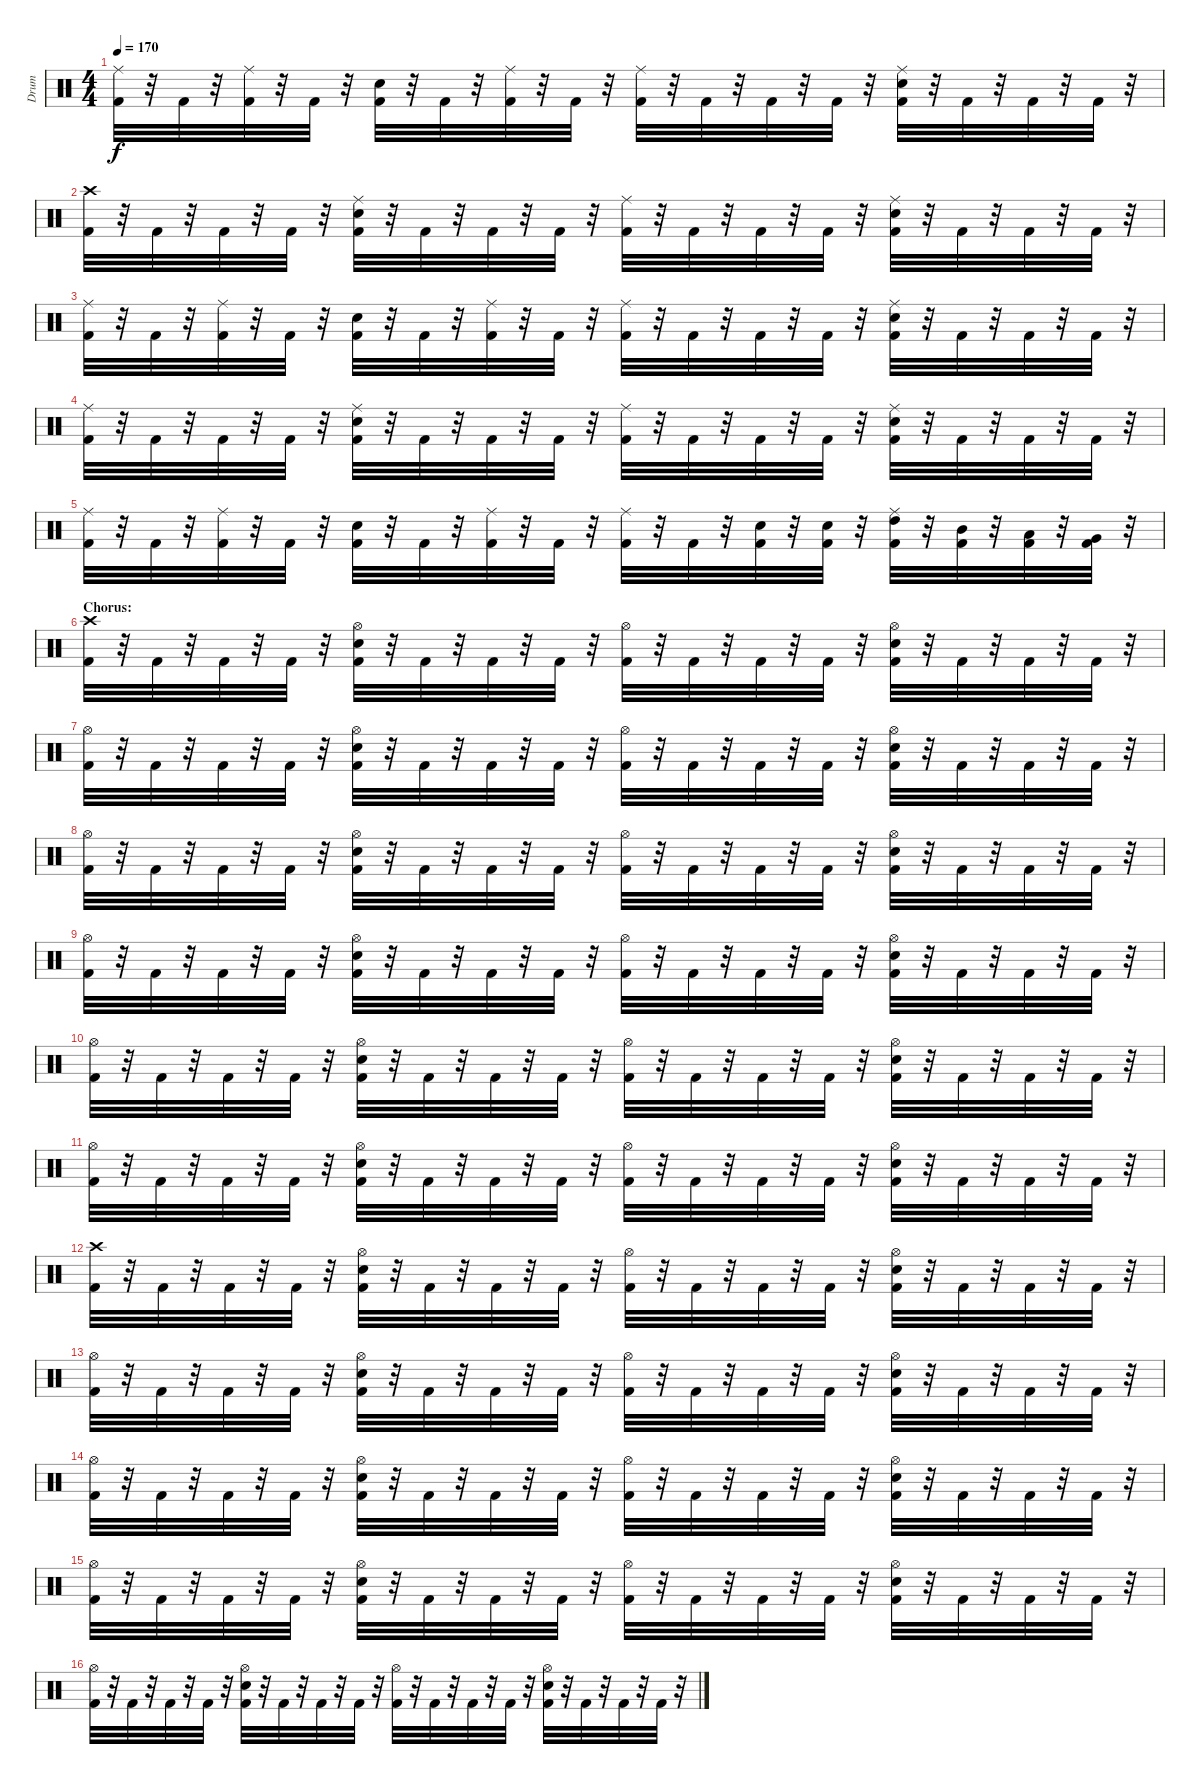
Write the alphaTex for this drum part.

\track ("Drum" "Drum") {instrument percussion}
\staff {score}
\articulation defaults
\ts (4 4)
\tempo 170
\clef neutral
\ks c
("Ride (middle)" "Kick (hit) 2").32{dy f} r.32 "Kick (hit) 2".32 r.32 ("Ride (middle)" "Kick (hit) 2").32 r.32 "Kick (hit) 2".32 r.32 ("Snare (hit) 2" "Kick (hit) 2").32 r.32 "Kick (hit) 2".32 r.32 ("Ride (middle)" "Kick (hit) 2").32 r.32 "Kick (hit) 2".32 r.32 ("Ride (middle)" "Kick (hit) 2").32 r.32 "Kick (hit) 2".32 r.32 "Kick (hit) 2".32 r.32 "Kick (hit) 2".32 r.32 ("Snare (hit) 2" "Ride (middle)" "Kick (hit) 2").32 r.32 "Kick (hit) 2".32 r.32 "Kick (hit) 2".32 r.32 "Kick (hit) 2".32 r.32 |
("Crash high (hit)" "Kick (hit) 2").32 r.32 "Kick (hit) 2".32 r.32 "Kick (hit) 2".32 r.32 "Kick (hit) 2".32 r.32 ("Snare (hit) 2" "Ride (middle)" "Kick (hit) 2").32 r.32 "Kick (hit) 2".32 r.32 "Kick (hit) 2".32 r.32 "Kick (hit) 2".32 r.32 ("Ride (middle)" "Kick (hit) 2").32 r.32 "Kick (hit) 2".32 r.32 "Kick (hit) 2".32 r.32 "Kick (hit) 2".32 r.32 ("Snare (hit) 2" "Ride (middle)" "Kick (hit) 2").32 r.32 "Kick (hit) 2".32 r.32 "Kick (hit) 2".32 r.32 "Kick (hit) 2".32 r.32 |
("Ride (middle)" "Kick (hit) 2").32 r.32 "Kick (hit) 2".32 r.32 ("Ride (middle)" "Kick (hit) 2").32 r.32 "Kick (hit) 2".32 r.32 ("Snare (hit) 2" "Kick (hit) 2").32 r.32 "Kick (hit) 2".32 r.32 ("Ride (middle)" "Kick (hit) 2").32 r.32 "Kick (hit) 2".32 r.32 ("Ride (middle)" "Kick (hit) 2").32 r.32 "Kick (hit) 2".32 r.32 "Kick (hit) 2".32 r.32 "Kick (hit) 2".32 r.32 ("Snare (hit) 2" "Ride (middle)" "Kick (hit) 2").32 r.32 "Kick (hit) 2".32 r.32 "Kick (hit) 2".32 r.32 "Kick (hit) 2".32 r.32 |
("Ride (middle)" "Kick (hit) 2").32 r.32 "Kick (hit) 2".32 r.32 "Kick (hit) 2".32 r.32 "Kick (hit) 2".32 r.32 ("Snare (hit) 2" "Ride (middle)" "Kick (hit) 2").32 r.32 "Kick (hit) 2".32 r.32 "Kick (hit) 2".32 r.32 "Kick (hit) 2".32 r.32 ("Ride (middle)" "Kick (hit) 2").32 r.32 "Kick (hit) 2".32 r.32 "Kick (hit) 2".32 r.32 "Kick (hit) 2".32 r.32 ("Snare (hit) 2" "Ride (middle)" "Kick (hit) 2").32 r.32 "Kick (hit) 2".32 r.32 "Kick (hit) 2".32 r.32 "Kick (hit) 2".32 r.32 |
("Ride (middle)" "Kick (hit) 2").32 r.32 "Kick (hit) 2".32 r.32 ("Ride (middle)" "Kick (hit) 2").32 r.32 "Kick (hit) 2".32 r.32 ("Snare (hit) 2" "Kick (hit) 2").32 r.32 "Kick (hit) 2".32 r.32 ("Ride (middle)" "Kick (hit) 2").32 r.32 "Kick (hit) 2".32 r.32 ("Ride (middle)" "Kick (hit) 2").32 r.32 "Kick (hit) 2".32 r.32 ("Snare (hit) 2" "Kick (hit) 2").32 r.32 ("Snare (hit) 2" "Kick (hit) 2").32 r.32 ("High Tom (hit)" "Ride (middle)" "Kick (hit) 2").32 r.32 ("Mid Tom (hit)" "Kick (hit) 2").32 r.32 ("Low Tom (hit)" "Kick (hit) 2").32 r.32 ("Very Low Tom (hit)" "Kick (hit) 2").32 r.32 |
\section ("" "Chorus:")
("Crash high (hit)" "Kick (hit) 2").32 r.32 "Kick (hit) 2".32 r.32 "Kick (hit) 2".32 r.32 "Kick (hit) 2".32 r.32 ("Hi-Hat (open)" "Snare (hit) 2" "Kick (hit) 2").32 r.32 "Kick (hit) 2".32 r.32 "Kick (hit) 2".32 r.32 "Kick (hit) 2".32 r.32 ("Hi-Hat (open)" "Kick (hit) 2").32 r.32 "Kick (hit) 2".32 r.32 "Kick (hit) 2".32 r.32 "Kick (hit) 2".32 r.32 ("Hi-Hat (open)" "Snare (hit) 2" "Kick (hit) 2").32 r.32 "Kick (hit) 2".32 r.32 "Kick (hit) 2".32 r.32 "Kick (hit) 2".32 r.32 |
("Hi-Hat (open)" "Kick (hit) 2").32 r.32 "Kick (hit) 2".32 r.32 "Kick (hit) 2".32 r.32 "Kick (hit) 2".32 r.32 ("Snare (hit) 2" "Hi-Hat (open)" "Kick (hit) 2").32 r.32 "Kick (hit) 2".32 r.32 "Kick (hit) 2".32 r.32 "Kick (hit) 2".32 r.32 ("Hi-Hat (open)" "Kick (hit) 2").32 r.32 "Kick (hit) 2".32 r.32 "Kick (hit) 2".32 r.32 "Kick (hit) 2".32 r.32 ("Snare (hit) 2" "Hi-Hat (open)" "Kick (hit) 2").32 r.32 "Kick (hit) 2".32 r.32 "Kick (hit) 2".32 r.32 "Kick (hit) 2".32 r.32 |
("Hi-Hat (open)" "Kick (hit) 2").32 r.32 "Kick (hit) 2".32 r.32 "Kick (hit) 2".32 r.32 "Kick (hit) 2".32 r.32 ("Snare (hit) 2" "Hi-Hat (open)" "Kick (hit) 2").32 r.32 "Kick (hit) 2".32 r.32 "Kick (hit) 2".32 r.32 "Kick (hit) 2".32 r.32 ("Hi-Hat (open)" "Kick (hit) 2").32 r.32 "Kick (hit) 2".32 r.32 "Kick (hit) 2".32 r.32 "Kick (hit) 2".32 r.32 ("Snare (hit) 2" "Hi-Hat (open)" "Kick (hit) 2").32 r.32 "Kick (hit) 2".32 r.32 "Kick (hit) 2".32 r.32 "Kick (hit) 2".32 r.32 |
("Hi-Hat (open)" "Kick (hit) 2").32 r.32 "Kick (hit) 2".32 r.32 "Kick (hit) 2".32 r.32 "Kick (hit) 2".32 r.32 ("Hi-Hat (open)" "Snare (hit) 2" "Kick (hit) 2").32 r.32 "Kick (hit) 2".32 r.32 "Kick (hit) 2".32 r.32 "Kick (hit) 2".32 r.32 ("Hi-Hat (open)" "Kick (hit) 2").32 r.32 "Kick (hit) 2".32 r.32 "Kick (hit) 2".32 r.32 "Kick (hit) 2".32 r.32 ("Hi-Hat (open)" "Snare (hit) 2" "Kick (hit) 2").32 r.32 "Kick (hit) 2".32 r.32 "Kick (hit) 2".32 r.32 "Kick (hit) 2".32 r.32 |
("Hi-Hat (open)" "Kick (hit) 2").32 r.32 "Kick (hit) 2".32 r.32 "Kick (hit) 2".32 r.32 "Kick (hit) 2".32 r.32 ("Snare (hit) 2" "Hi-Hat (open)" "Kick (hit) 2").32 r.32 "Kick (hit) 2".32 r.32 "Kick (hit) 2".32 r.32 "Kick (hit) 2".32 r.32 ("Hi-Hat (open)" "Kick (hit) 2").32 r.32 "Kick (hit) 2".32 r.32 "Kick (hit) 2".32 r.32 "Kick (hit) 2".32 r.32 ("Snare (hit) 2" "Hi-Hat (open)" "Kick (hit) 2").32 r.32 "Kick (hit) 2".32 r.32 "Kick (hit) 2".32 r.32 "Kick (hit) 2".32 r.32 |
("Hi-Hat (open)" "Kick (hit) 2").32 r.32 "Kick (hit) 2".32 r.32 "Kick (hit) 2".32 r.32 "Kick (hit) 2".32 r.32 ("Hi-Hat (open)" "Snare (hit) 2" "Kick (hit) 2").32 r.32 "Kick (hit) 2".32 r.32 "Kick (hit) 2".32 r.32 "Kick (hit) 2".32 r.32 ("Hi-Hat (open)" "Kick (hit) 2").32 r.32 "Kick (hit) 2".32 r.32 "Kick (hit) 2".32 r.32 "Kick (hit) 2".32 r.32 ("Hi-Hat (open)" "Snare (hit) 2" "Kick (hit) 2").32 r.32 "Kick (hit) 2".32 r.32 "Kick (hit) 2".32 r.32 "Kick (hit) 2".32 r.32 |
("Crash high (hit)" "Kick (hit) 2").32 r.32 "Kick (hit) 2".32 r.32 "Kick (hit) 2".32 r.32 "Kick (hit) 2".32 r.32 ("Hi-Hat (open)" "Snare (hit) 2" "Kick (hit) 2").32 r.32 "Kick (hit) 2".32 r.32 "Kick (hit) 2".32 r.32 "Kick (hit) 2".32 r.32 ("Hi-Hat (open)" "Kick (hit) 2").32 r.32 "Kick (hit) 2".32 r.32 "Kick (hit) 2".32 r.32 "Kick (hit) 2".32 r.32 ("Hi-Hat (open)" "Snare (hit) 2" "Kick (hit) 2").32 r.32 "Kick (hit) 2".32 r.32 "Kick (hit) 2".32 r.32 "Kick (hit) 2".32 r.32 |
("Hi-Hat (open)" "Kick (hit) 2").32 r.32 "Kick (hit) 2".32 r.32 "Kick (hit) 2".32 r.32 "Kick (hit) 2".32 r.32 ("Snare (hit) 2" "Hi-Hat (open)" "Kick (hit) 2").32 r.32 "Kick (hit) 2".32 r.32 "Kick (hit) 2".32 r.32 "Kick (hit) 2".32 r.32 ("Hi-Hat (open)" "Kick (hit) 2").32 r.32 "Kick (hit) 2".32 r.32 "Kick (hit) 2".32 r.32 "Kick (hit) 2".32 r.32 ("Snare (hit) 2" "Hi-Hat (open)" "Kick (hit) 2").32 r.32 "Kick (hit) 2".32 r.32 "Kick (hit) 2".32 r.32 "Kick (hit) 2".32 r.32 |
("Hi-Hat (open)" "Kick (hit) 2").32 r.32 "Kick (hit) 2".32 r.32 "Kick (hit) 2".32 r.32 "Kick (hit) 2".32 r.32 ("Snare (hit) 2" "Hi-Hat (open)" "Kick (hit) 2").32 r.32 "Kick (hit) 2".32 r.32 "Kick (hit) 2".32 r.32 "Kick (hit) 2".32 r.32 ("Hi-Hat (open)" "Kick (hit) 2").32 r.32 "Kick (hit) 2".32 r.32 "Kick (hit) 2".32 r.32 "Kick (hit) 2".32 r.32 ("Snare (hit) 2" "Hi-Hat (open)" "Kick (hit) 2").32 r.32 "Kick (hit) 2".32 r.32 "Kick (hit) 2".32 r.32 "Kick (hit) 2".32 r.32 |
("Hi-Hat (open)" "Kick (hit) 2").32 r.32 "Kick (hit) 2".32 r.32 "Kick (hit) 2".32 r.32 "Kick (hit) 2".32 r.32 ("Hi-Hat (open)" "Snare (hit) 2" "Kick (hit) 2").32 r.32 "Kick (hit) 2".32 r.32 "Kick (hit) 2".32 r.32 "Kick (hit) 2".32 r.32 ("Hi-Hat (open)" "Kick (hit) 2").32 r.32 "Kick (hit) 2".32 r.32 "Kick (hit) 2".32 r.32 "Kick (hit) 2".32 r.32 ("Hi-Hat (open)" "Snare (hit) 2" "Kick (hit) 2").32 r.32 "Kick (hit) 2".32 r.32 "Kick (hit) 2".32 r.32 "Kick (hit) 2".32 r.32 |
("Hi-Hat (open)" "Kick (hit) 2").32 r.32 "Kick (hit) 2".32 r.32 "Kick (hit) 2".32 r.32 "Kick (hit) 2".32 r.32 ("Hi-Hat (open)" "Snare (hit) 2" "Kick (hit) 2").32 r.32 "Kick (hit) 2".32 r.32 "Kick (hit) 2".32 r.32 "Kick (hit) 2".32 r.32 ("Hi-Hat (open)" "Kick (hit) 2").32 r.32 "Kick (hit) 2".32 r.32 "Kick (hit) 2".32 r.32 "Kick (hit) 2".32 r.32 ("Hi-Hat (open)" "Snare (hit) 2" "Kick (hit) 2").32 r.32 "Kick (hit) 2".32 r.32 "Kick (hit) 2".32 r.32 "Kick (hit) 2".32 r.32
